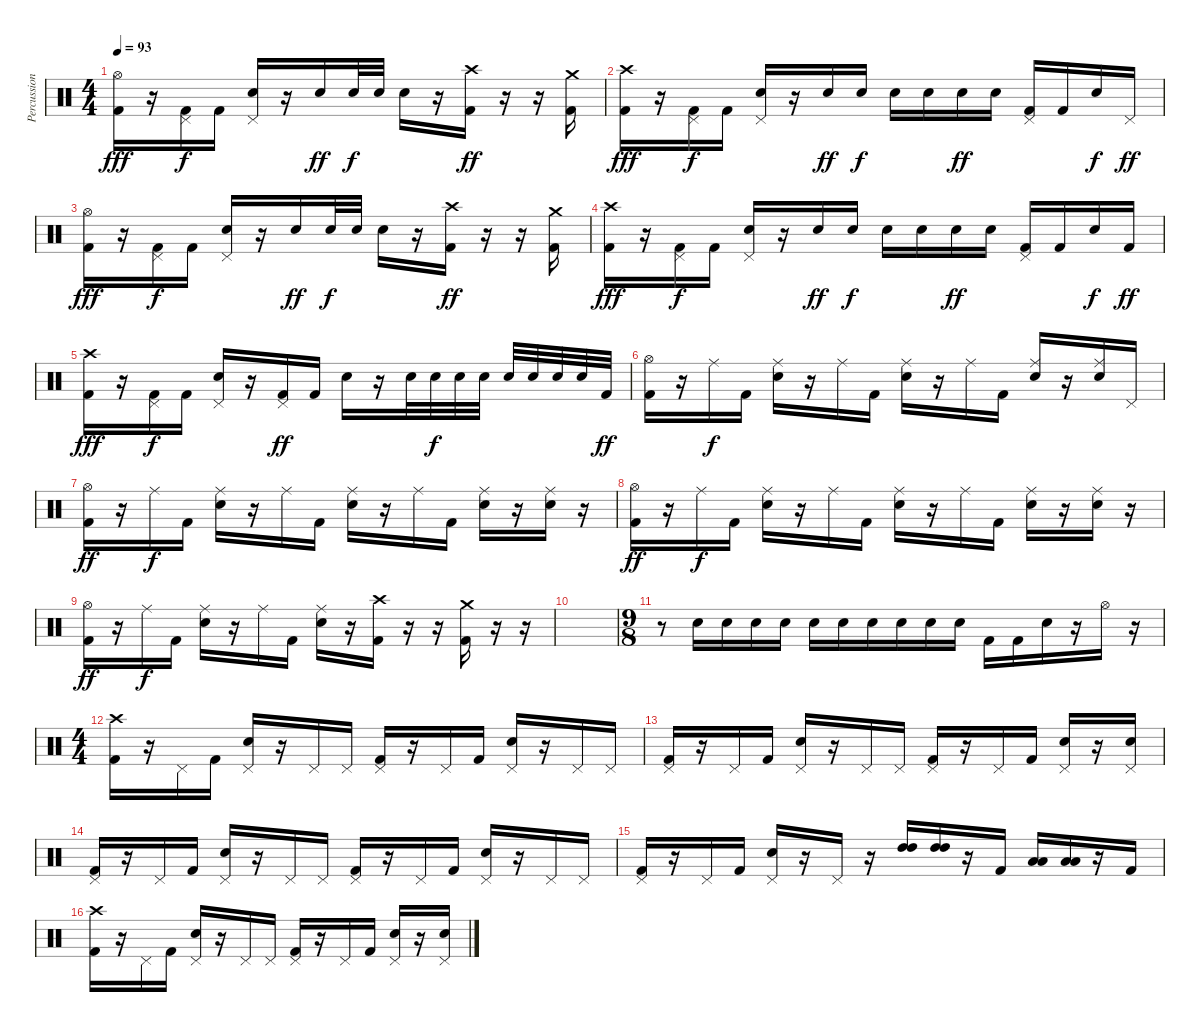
\track ("Percussion" "Percussion") {instrument percussion}
\staff {score}
\articulation defaults
\ts (4 4)
\tempo 93
\clef neutral
\ks c
("Kick (hit) 2" "Hi-Hat (open)").16{dy fff} r.16 ("Pedal Hi-Hat (hit)" "Kick (hit) 2").16{dy f} "Kick (hit) 2".16 ("Pedal Hi-Hat (hit)" "Snare (hit) 2").16 r.16 "Snare (hit) 2".16{dy ff} "Snare (hit) 2".32{dy f} "Snare (hit) 2".32 "Snare (hit) 2".16 r.16 ("Kick (hit) 2" "Crash high (hit)").16{dy ff} r.16 r.16 ("Kick (hit) 2" "Crash medium (hit)").16 |
("Kick (hit) 2" "Crash high (hit)").16{dy fff} r.16 ("Pedal Hi-Hat (hit)" "Kick (hit) 2").16{dy f} "Kick (hit) 2".16 ("Pedal Hi-Hat (hit)" "Snare (hit) 2").16 r.16 "Snare (hit) 2".16{dy ff} "Snare (hit) 2".16{dy f} "Snare (hit) 2".16 "Snare (hit) 2".16 "Snare (hit) 2".16{dy ff} "Snare (hit) 2".16 ("Pedal Hi-Hat (hit)" "Kick (hit) 2").16 "Kick (hit) 2".16 "Snare (hit) 2".16{dy f} "Pedal Hi-Hat (hit)".16{dy ff} |
("Kick (hit) 2" "Hi-Hat (open)").16{dy fff} r.16 ("Pedal Hi-Hat (hit)" "Kick (hit) 2").16{dy f} "Kick (hit) 2".16 ("Pedal Hi-Hat (hit)" "Snare (hit) 2").16 r.16 "Snare (hit) 2".16{dy ff} "Snare (hit) 2".32{dy f} "Snare (hit) 2".32 "Snare (hit) 2".16 r.16 ("Kick (hit) 2" "Crash high (hit)").16{dy ff} r.16 r.16 ("Kick (hit) 2" "Crash medium (hit)").16 |
("Kick (hit) 2" "Crash high (hit)").16{dy fff} r.16 ("Pedal Hi-Hat (hit)" "Kick (hit) 2").16{dy f} "Kick (hit) 2".16 ("Pedal Hi-Hat (hit)" "Snare (hit) 2").16 r.16 "Snare (hit) 2".16{dy ff} "Snare (hit) 2".16{dy f} "Snare (hit) 2".16 "Snare (hit) 2".16 "Snare (hit) 2".16{dy ff} "Snare (hit) 2".16 ("Pedal Hi-Hat (hit)" "Kick (hit) 2").16 "Kick (hit) 2".16 "Snare (hit) 2".16{dy f} "Kick (hit) 2".16{dy ff} |
("Kick (hit) 2" "Crash high (hit)").16{dy fff} r.16 ("Pedal Hi-Hat (hit)" "Kick (hit) 2").16{dy f} "Kick (hit) 2".16 ("Pedal Hi-Hat (hit)" "Snare (hit) 2").16 r.16 ("Pedal Hi-Hat (hit)" "Kick (hit) 2").16{dy ff} "Kick (hit) 2".16 "Snare (hit) 2".16 r.16 "Snare (hit) 2".32 "Snare (hit) 2".32{dy f} "Snare (hit) 2".32 "Snare (hit) 2".32 "Snare (hit) 2".32 "Snare (hit) 2".32 "Snare (hit) 2".32 "Snare (hit) 2".32 "Kick (hit) 2".32{dy ff} |
("Hi-Hat (open)" "Kick (hit) 2").16 r.16 "Ride (middle)".16{dy f} "Kick (hit) 2".16 ("Ride (middle)" "Snare (hit) 2").16 r.16 "Ride (middle)".16 "Kick (hit) 2".16 ("Ride (middle)" "Snare (hit) 2").16 r.16 "Ride (middle)".16 "Kick (hit) 2".16 ("Ride (middle)" "Snare (hit) 2").16 r.16 ("Ride (middle)" "Snare (hit) 2").16 "Pedal Hi-Hat (hit)".16 |
("Hi-Hat (open)" "Kick (hit) 2").16{dy ff} r.16 "Ride (middle)".16{dy f} "Kick (hit) 2".16 ("Ride (middle)" "Snare (hit) 2").16 r.16 "Ride (middle)".16 "Kick (hit) 2".16 ("Ride (middle)" "Snare (hit) 2").16 r.16 "Ride (middle)".16 "Kick (hit) 2".16 ("Ride (middle)" "Snare (hit) 2").16 r.16 ("Ride (middle)" "Snare (hit) 2").16 r.16 |
("Hi-Hat (open)" "Kick (hit) 2").16{dy ff} r.16 "Ride (middle)".16{dy f} "Kick (hit) 2".16 ("Ride (middle)" "Snare (hit) 2").16 r.16 "Ride (middle)".16 "Kick (hit) 2".16 ("Ride (middle)" "Snare (hit) 2").16 r.16 "Ride (middle)".16 "Kick (hit) 2".16 ("Ride (middle)" "Snare (hit) 2").16 r.16 ("Ride (middle)" "Snare (hit) 2").16 r.16 |
("Hi-Hat (open)" "Kick (hit) 2").16{dy ff} r.16 "Ride (middle)".16{dy f} "Kick (hit) 2".16 ("Ride (middle)" "Snare (hit) 2").16 r.16 "Ride (middle)".16 "Kick (hit) 2".16 ("Ride (middle)" "Snare (hit) 2").16 r.16 ("Crash high (hit)" "Kick (hit) 2").16 r.16 r.16 ("Crash medium (hit)" "Kick (hit) 2").16 r.16 r.16 |
|
\ts (9 8)
r.8 "Snare (hit) 2".16 "Snare (hit) 2".16 "Snare (hit) 2".16 "Snare (hit) 2".16 "Snare (hit) 2".16 "Snare (hit) 2".16 "Snare (hit) 2".16 "Snare (hit) 2".16 "Snare (hit) 2".16 "Snare (hit) 2".16 "Kick (hit) 2".16 "Kick (hit) 2".16 "Snare (hit) 2".16 r.16 "Hi-Hat (open)".16 r.16 |
\ts (4 4)
("Crash high (hit)" "Kick (hit) 2").16 r.16 "Pedal Hi-Hat (hit)".16 "Kick (hit) 2".16 ("Pedal Hi-Hat (hit)" "Snare (hit) 2").16 r.16 "Pedal Hi-Hat (hit)".16 "Pedal Hi-Hat (hit)".16 ("Pedal Hi-Hat (hit)" "Kick (hit) 2").16 r.16 "Pedal Hi-Hat (hit)".16 "Kick (hit) 2".16 ("Pedal Hi-Hat (hit)" "Snare (hit) 2").16 r.16 "Pedal Hi-Hat (hit)".16 "Pedal Hi-Hat (hit)".16 |
("Pedal Hi-Hat (hit)" "Kick (hit) 2").16 r.16 "Pedal Hi-Hat (hit)".16 "Kick (hit) 2".16 ("Pedal Hi-Hat (hit)" "Snare (hit) 2").16 r.16 "Pedal Hi-Hat (hit)".16 "Pedal Hi-Hat (hit)".16 ("Pedal Hi-Hat (hit)" "Kick (hit) 2").16 r.16 "Pedal Hi-Hat (hit)".16 "Kick (hit) 2".16 ("Pedal Hi-Hat (hit)" "Snare (hit) 2").16 r.16 ("Pedal Hi-Hat (hit)" "Snare (hit) 2").16 |
("Pedal Hi-Hat (hit)" "Kick (hit) 2").16 r.16 "Pedal Hi-Hat (hit)".16 "Kick (hit) 2".16 ("Pedal Hi-Hat (hit)" "Snare (hit) 2").16 r.16 "Pedal Hi-Hat (hit)".16 "Pedal Hi-Hat (hit)".16 ("Pedal Hi-Hat (hit)" "Kick (hit) 2").16 r.16 "Pedal Hi-Hat (hit)".16 "Kick (hit) 2".16 ("Pedal Hi-Hat (hit)" "Snare (hit) 2").16 r.16 "Pedal Hi-Hat (hit)".16 "Pedal Hi-Hat (hit)".16 |
("Pedal Hi-Hat (hit)" "Kick (hit) 2").16 r.16 "Pedal Hi-Hat (hit)".16 "Kick (hit) 2".16 ("Pedal Hi-Hat (hit)" "Snare (hit) 2").16 r.16 "Pedal Hi-Hat (hit)".16 r.16 ("High Tom (hit)" "High Tom (hit)").16 ("High Tom (hit)" "High Tom (hit)").16 r.16 "Kick (hit) 2".16 ("Low Tom (hit)" "Low Tom (hit)").16 ("Low Tom (hit)" "Low Tom (hit)").16 r.16 "Kick (hit) 2".16 |
("Crash high (hit)" "Kick (hit) 2").16 r.16 "Pedal Hi-Hat (hit)".16 "Kick (hit) 2".16 ("Pedal Hi-Hat (hit)" "Snare (hit) 2").16 r.16 "Pedal Hi-Hat (hit)".16 "Pedal Hi-Hat (hit)".16 ("Pedal Hi-Hat (hit)" "Kick (hit) 2").16 r.16 "Pedal Hi-Hat (hit)".16 "Kick (hit) 2".16 ("Pedal Hi-Hat (hit)" "Snare (hit) 2").16 r.16 ("Pedal Hi-Hat (hit)" "Snare (hit) 2").16
